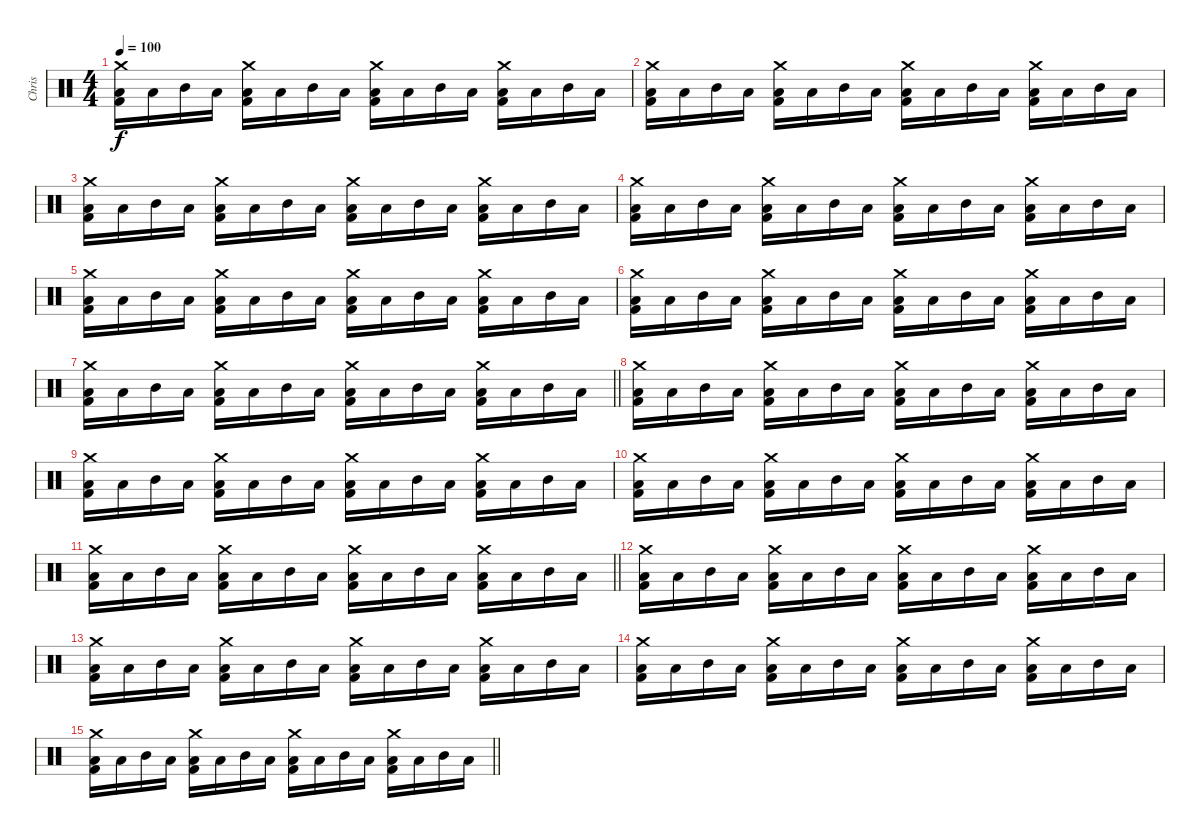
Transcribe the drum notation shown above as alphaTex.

\track ("Chris" "Chris") {instrument percussion}
\staff {score}
\articulation defaults
\ts (4 4)
\tempo 100
\clef neutral
\ks c
("Crash medium (hit)" "Low Tom (hit)" "Kick (hit) 2").16{dy f} "Low Tom (hit)".16 "Mid Tom (hit)".16 "Low Tom (hit)".16 ("Crash medium (hit)" "Low Tom (hit)" "Kick (hit) 2").16 "Low Tom (hit)".16 "Mid Tom (hit)".16 "Low Tom (hit)".16 ("Crash medium (hit)" "Low Tom (hit)" "Kick (hit) 2").16 "Low Tom (hit)".16 "Mid Tom (hit)".16 "Low Tom (hit)".16 ("Crash medium (hit)" "Low Tom (hit)" "Kick (hit) 2").16 "Low Tom (hit)".16 "Mid Tom (hit)".16 "Low Tom (hit)".16 |
("Crash medium (hit)" "Low Tom (hit)" "Kick (hit) 2").16 "Low Tom (hit)".16 "Mid Tom (hit)".16 "Low Tom (hit)".16 ("Crash medium (hit)" "Low Tom (hit)" "Kick (hit) 2").16 "Low Tom (hit)".16 "Mid Tom (hit)".16 "Low Tom (hit)".16 ("Crash medium (hit)" "Low Tom (hit)" "Kick (hit) 2").16 "Low Tom (hit)".16 "Mid Tom (hit)".16 "Low Tom (hit)".16 ("Crash medium (hit)" "Low Tom (hit)" "Kick (hit) 2").16 "Low Tom (hit)".16 "Mid Tom (hit)".16 "Low Tom (hit)".16 |
("Crash medium (hit)" "Low Tom (hit)" "Kick (hit) 2").16 "Low Tom (hit)".16 "Mid Tom (hit)".16 "Low Tom (hit)".16 ("Crash medium (hit)" "Low Tom (hit)" "Kick (hit) 2").16 "Low Tom (hit)".16 "Mid Tom (hit)".16 "Low Tom (hit)".16 ("Crash medium (hit)" "Low Tom (hit)" "Kick (hit) 2").16 "Low Tom (hit)".16 "Mid Tom (hit)".16 "Low Tom (hit)".16 ("Crash medium (hit)" "Low Tom (hit)" "Kick (hit) 2").16 "Low Tom (hit)".16 "Mid Tom (hit)".16 "Low Tom (hit)".16 |
("Crash medium (hit)" "Low Tom (hit)" "Kick (hit) 2").16 "Low Tom (hit)".16 "Mid Tom (hit)".16 "Low Tom (hit)".16 ("Crash medium (hit)" "Low Tom (hit)" "Kick (hit) 2").16 "Low Tom (hit)".16 "Mid Tom (hit)".16 "Low Tom (hit)".16 ("Crash medium (hit)" "Low Tom (hit)" "Kick (hit) 2").16 "Low Tom (hit)".16 "Mid Tom (hit)".16 "Low Tom (hit)".16 ("Crash medium (hit)" "Low Tom (hit)" "Kick (hit) 2").16 "Low Tom (hit)".16 "Mid Tom (hit)".16 "Low Tom (hit)".16 |
("Crash medium (hit)" "Low Tom (hit)" "Kick (hit) 2").16 "Low Tom (hit)".16 "Mid Tom (hit)".16 "Low Tom (hit)".16 ("Crash medium (hit)" "Low Tom (hit)" "Kick (hit) 2").16 "Low Tom (hit)".16 "Mid Tom (hit)".16 "Low Tom (hit)".16 ("Crash medium (hit)" "Low Tom (hit)" "Kick (hit) 2").16 "Low Tom (hit)".16 "Mid Tom (hit)".16 "Low Tom (hit)".16 ("Crash medium (hit)" "Low Tom (hit)" "Kick (hit) 2").16 "Low Tom (hit)".16 "Mid Tom (hit)".16 "Low Tom (hit)".16 |
("Crash medium (hit)" "Low Tom (hit)" "Kick (hit) 2").16 "Low Tom (hit)".16 "Mid Tom (hit)".16 "Low Tom (hit)".16 ("Crash medium (hit)" "Low Tom (hit)" "Kick (hit) 2").16 "Low Tom (hit)".16 "Mid Tom (hit)".16 "Low Tom (hit)".16 ("Crash medium (hit)" "Low Tom (hit)" "Kick (hit) 2").16 "Low Tom (hit)".16 "Mid Tom (hit)".16 "Low Tom (hit)".16 ("Crash medium (hit)" "Low Tom (hit)" "Kick (hit) 2").16 "Low Tom (hit)".16 "Mid Tom (hit)".16 "Low Tom (hit)".16 |
\barLineRight lightlight
("Crash medium (hit)" "Low Tom (hit)" "Kick (hit) 2").16 "Low Tom (hit)".16 "Mid Tom (hit)".16 "Low Tom (hit)".16 ("Crash medium (hit)" "Low Tom (hit)" "Kick (hit) 2").16 "Low Tom (hit)".16 "Mid Tom (hit)".16 "Low Tom (hit)".16 ("Crash medium (hit)" "Low Tom (hit)" "Kick (hit) 2").16 "Low Tom (hit)".16 "Mid Tom (hit)".16 "Low Tom (hit)".16 ("Crash medium (hit)" "Low Tom (hit)" "Kick (hit) 2").16 "Low Tom (hit)".16 "Mid Tom (hit)".16 "Low Tom (hit)".16 |
("Crash medium (hit)" "Low Tom (hit)" "Kick (hit) 2").16 "Low Tom (hit)".16 "Mid Tom (hit)".16 "Low Tom (hit)".16 ("Crash medium (hit)" "Low Tom (hit)" "Kick (hit) 2").16 "Low Tom (hit)".16 "Mid Tom (hit)".16 "Low Tom (hit)".16 ("Crash medium (hit)" "Low Tom (hit)" "Kick (hit) 2").16 "Low Tom (hit)".16 "Mid Tom (hit)".16 "Low Tom (hit)".16 ("Crash medium (hit)" "Low Tom (hit)" "Kick (hit) 2").16 "Low Tom (hit)".16 "Mid Tom (hit)".16 "Low Tom (hit)".16 |
("Crash medium (hit)" "Low Tom (hit)" "Kick (hit) 2").16 "Low Tom (hit)".16 "Mid Tom (hit)".16 "Low Tom (hit)".16 ("Crash medium (hit)" "Low Tom (hit)" "Kick (hit) 2").16 "Low Tom (hit)".16 "Mid Tom (hit)".16 "Low Tom (hit)".16 ("Crash medium (hit)" "Low Tom (hit)" "Kick (hit) 2").16 "Low Tom (hit)".16 "Mid Tom (hit)".16 "Low Tom (hit)".16 ("Crash medium (hit)" "Low Tom (hit)" "Kick (hit) 2").16 "Low Tom (hit)".16 "Mid Tom (hit)".16 "Low Tom (hit)".16 |
("Crash medium (hit)" "Low Tom (hit)" "Kick (hit) 2").16 "Low Tom (hit)".16 "Mid Tom (hit)".16 "Low Tom (hit)".16 ("Crash medium (hit)" "Low Tom (hit)" "Kick (hit) 2").16 "Low Tom (hit)".16 "Mid Tom (hit)".16 "Low Tom (hit)".16 ("Crash medium (hit)" "Low Tom (hit)" "Kick (hit) 2").16 "Low Tom (hit)".16 "Mid Tom (hit)".16 "Low Tom (hit)".16 ("Crash medium (hit)" "Low Tom (hit)" "Kick (hit) 2").16 "Low Tom (hit)".16 "Mid Tom (hit)".16 "Low Tom (hit)".16 |
\barLineRight lightlight
("Crash medium (hit)" "Low Tom (hit)" "Kick (hit) 2").16 "Low Tom (hit)".16 "Mid Tom (hit)".16 "Low Tom (hit)".16 ("Crash medium (hit)" "Low Tom (hit)" "Kick (hit) 2").16 "Low Tom (hit)".16 "Mid Tom (hit)".16 "Low Tom (hit)".16 ("Crash medium (hit)" "Low Tom (hit)" "Kick (hit) 2").16 "Low Tom (hit)".16 "Mid Tom (hit)".16 "Low Tom (hit)".16 ("Crash medium (hit)" "Low Tom (hit)" "Kick (hit) 2").16 "Low Tom (hit)".16 "Mid Tom (hit)".16 "Low Tom (hit)".16 |
("Crash medium (hit)" "Low Tom (hit)" "Kick (hit) 2").16{volume 0} "Low Tom (hit)".16 "Mid Tom (hit)".16 "Low Tom (hit)".16 ("Crash medium (hit)" "Low Tom (hit)" "Kick (hit) 2").16 "Low Tom (hit)".16 "Mid Tom (hit)".16 "Low Tom (hit)".16 ("Crash medium (hit)" "Low Tom (hit)" "Kick (hit) 2").16 "Low Tom (hit)".16 "Mid Tom (hit)".16 "Low Tom (hit)".16 ("Crash medium (hit)" "Low Tom (hit)" "Kick (hit) 2").16 "Low Tom (hit)".16 "Mid Tom (hit)".16 "Low Tom (hit)".16 |
("Crash medium (hit)" "Low Tom (hit)" "Kick (hit) 2").16 "Low Tom (hit)".16 "Mid Tom (hit)".16 "Low Tom (hit)".16 ("Crash medium (hit)" "Low Tom (hit)" "Kick (hit) 2").16 "Low Tom (hit)".16 "Mid Tom (hit)".16 "Low Tom (hit)".16 ("Crash medium (hit)" "Low Tom (hit)" "Kick (hit) 2").16 "Low Tom (hit)".16 "Mid Tom (hit)".16 "Low Tom (hit)".16 ("Crash medium (hit)" "Low Tom (hit)" "Kick (hit) 2").16 "Low Tom (hit)".16 "Mid Tom (hit)".16 "Low Tom (hit)".16 |
("Crash medium (hit)" "Low Tom (hit)" "Kick (hit) 2").16 "Low Tom (hit)".16 "Mid Tom (hit)".16 "Low Tom (hit)".16 ("Crash medium (hit)" "Low Tom (hit)" "Kick (hit) 2").16 "Low Tom (hit)".16 "Mid Tom (hit)".16 "Low Tom (hit)".16 ("Crash medium (hit)" "Low Tom (hit)" "Kick (hit) 2").16 "Low Tom (hit)".16 "Mid Tom (hit)".16 "Low Tom (hit)".16 ("Crash medium (hit)" "Low Tom (hit)" "Kick (hit) 2").16 "Low Tom (hit)".16 "Mid Tom (hit)".16 "Low Tom (hit)".16 |
\barLineRight lightlight
("Crash medium (hit)" "Low Tom (hit)" "Kick (hit) 2").16 "Low Tom (hit)".16 "Mid Tom (hit)".16 "Low Tom (hit)".16 ("Crash medium (hit)" "Low Tom (hit)" "Kick (hit) 2").16 "Low Tom (hit)".16 "Mid Tom (hit)".16 "Low Tom (hit)".16 ("Crash medium (hit)" "Low Tom (hit)" "Kick (hit) 2").16 "Low Tom (hit)".16 "Mid Tom (hit)".16 "Low Tom (hit)".16 ("Crash medium (hit)" "Low Tom (hit)" "Kick (hit) 2").16 "Low Tom (hit)".16 "Mid Tom (hit)".16 "Low Tom (hit)".16
